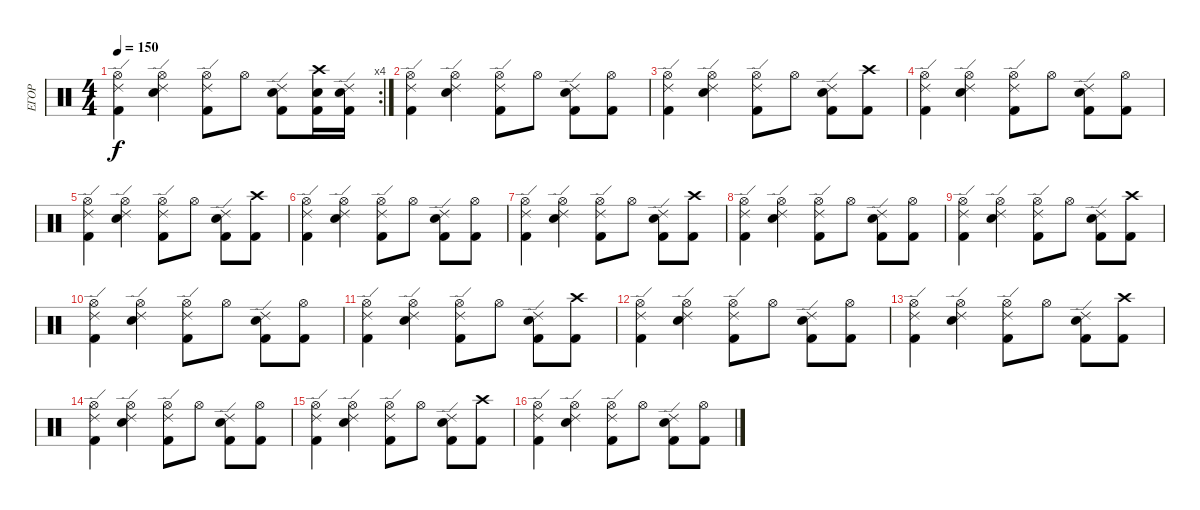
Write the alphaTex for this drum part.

\track ("ЕГОР" "ЕГОР") {instrument percussion}
\staff {score}
\articulation defaults
\rc 4
\ts (4 4)
\tempo 150
\clef neutral
\ks c
("Hi-Hat (open)" "Ride (edge) 2" "Kick (hit) 2").4{dy f} ("Hi-Hat (open)" "Snare (hit) 2" "Ride (edge) 2").4 ("Hi-Hat (open)" "Ride (edge) 2" "Kick (hit) 2").8 "Hi-Hat (open)".8 ("Snare (hit) 2" "Ride (edge) 2" "Kick (hit) 2").8 ("Snare (hit) 2" "Crash high (hit)" "Kick (hit) 2").16 ("Snare (hit) 2" "Ride (edge) 2" "Kick (hit) 2").16 |
("Hi-Hat (open)" "Ride (edge) 2" "Kick (hit) 2").4 ("Hi-Hat (open)" "Snare (hit) 2" "Ride (edge) 2").4 ("Hi-Hat (open)" "Ride (edge) 2" "Kick (hit) 2").8 "Hi-Hat (open)".8 ("Snare (hit) 2" "Ride (edge) 2" "Kick (hit) 2").8 ("Hi-Hat (open)" "Kick (hit) 2").8 |
("Hi-Hat (open)" "Ride (edge) 2" "Kick (hit) 2").4 ("Hi-Hat (open)" "Snare (hit) 2" "Ride (edge) 2").4 ("Hi-Hat (open)" "Ride (edge) 2" "Kick (hit) 2").8 "Hi-Hat (open)".8 ("Snare (hit) 2" "Ride (edge) 2" "Kick (hit) 2").8 ("Crash high (hit)" "Kick (hit) 2").8 |
("Hi-Hat (open)" "Ride (edge) 2" "Kick (hit) 2").4 ("Hi-Hat (open)" "Snare (hit) 2" "Ride (edge) 2").4 ("Hi-Hat (open)" "Ride (edge) 2" "Kick (hit) 2").8 "Hi-Hat (open)".8 ("Snare (hit) 2" "Ride (edge) 2" "Kick (hit) 2").8 ("Hi-Hat (open)" "Kick (hit) 2").8 |
("Hi-Hat (open)" "Ride (edge) 2" "Kick (hit) 2").4 ("Hi-Hat (open)" "Snare (hit) 2" "Ride (edge) 2").4 ("Hi-Hat (open)" "Ride (edge) 2" "Kick (hit) 2").8 "Hi-Hat (open)".8 ("Snare (hit) 2" "Ride (edge) 2" "Kick (hit) 2").8 ("Crash high (hit)" "Kick (hit) 2").8 |
("Hi-Hat (open)" "Ride (edge) 2" "Kick (hit) 2").4 ("Hi-Hat (open)" "Snare (hit) 2" "Ride (edge) 2").4 ("Hi-Hat (open)" "Ride (edge) 2" "Kick (hit) 2").8 "Hi-Hat (open)".8 ("Snare (hit) 2" "Ride (edge) 2" "Kick (hit) 2").8 ("Hi-Hat (open)" "Kick (hit) 2").8 |
("Hi-Hat (open)" "Ride (edge) 2" "Kick (hit) 2").4 ("Hi-Hat (open)" "Snare (hit) 2" "Ride (edge) 2").4 ("Hi-Hat (open)" "Ride (edge) 2" "Kick (hit) 2").8 "Hi-Hat (open)".8 ("Snare (hit) 2" "Ride (edge) 2" "Kick (hit) 2").8 ("Crash high (hit)" "Kick (hit) 2").8 |
("Hi-Hat (open)" "Ride (edge) 2" "Kick (hit) 2").4 ("Hi-Hat (open)" "Snare (hit) 2" "Ride (edge) 2").4 ("Hi-Hat (open)" "Ride (edge) 2" "Kick (hit) 2").8 "Hi-Hat (open)".8 ("Snare (hit) 2" "Ride (edge) 2" "Kick (hit) 2").8 ("Hi-Hat (open)" "Kick (hit) 2").8 |
("Hi-Hat (open)" "Ride (edge) 2" "Kick (hit) 2").4 ("Hi-Hat (open)" "Snare (hit) 2" "Ride (edge) 2").4 ("Hi-Hat (open)" "Ride (edge) 2" "Kick (hit) 2").8 "Hi-Hat (open)".8 ("Snare (hit) 2" "Ride (edge) 2" "Kick (hit) 2").8 ("Crash high (hit)" "Kick (hit) 2").8 |
("Hi-Hat (open)" "Ride (edge) 2" "Kick (hit) 2").4 ("Hi-Hat (open)" "Snare (hit) 2" "Ride (edge) 2").4 ("Hi-Hat (open)" "Ride (edge) 2" "Kick (hit) 2").8 "Hi-Hat (open)".8 ("Snare (hit) 2" "Ride (edge) 2" "Kick (hit) 2").8 ("Hi-Hat (open)" "Kick (hit) 2").8 |
("Hi-Hat (open)" "Ride (edge) 2" "Kick (hit) 2").4 ("Hi-Hat (open)" "Snare (hit) 2" "Ride (edge) 2").4 ("Hi-Hat (open)" "Ride (edge) 2" "Kick (hit) 2").8 "Hi-Hat (open)".8 ("Snare (hit) 2" "Ride (edge) 2" "Kick (hit) 2").8 ("Crash high (hit)" "Kick (hit) 2").8 |
("Hi-Hat (open)" "Ride (edge) 2" "Kick (hit) 2").4 ("Hi-Hat (open)" "Snare (hit) 2" "Ride (edge) 2").4 ("Hi-Hat (open)" "Ride (edge) 2" "Kick (hit) 2").8 "Hi-Hat (open)".8 ("Snare (hit) 2" "Ride (edge) 2" "Kick (hit) 2").8 ("Hi-Hat (open)" "Kick (hit) 2").8 |
("Hi-Hat (open)" "Ride (edge) 2" "Kick (hit) 2").4 ("Hi-Hat (open)" "Snare (hit) 2" "Ride (edge) 2").4 ("Hi-Hat (open)" "Ride (edge) 2" "Kick (hit) 2").8 "Hi-Hat (open)".8 ("Snare (hit) 2" "Ride (edge) 2" "Kick (hit) 2").8 ("Crash high (hit)" "Kick (hit) 2").8 |
("Hi-Hat (open)" "Ride (edge) 2" "Kick (hit) 2").4 ("Hi-Hat (open)" "Snare (hit) 2" "Ride (edge) 2").4 ("Hi-Hat (open)" "Ride (edge) 2" "Kick (hit) 2").8 "Hi-Hat (open)".8 ("Snare (hit) 2" "Ride (edge) 2" "Kick (hit) 2").8 ("Hi-Hat (open)" "Kick (hit) 2").8 |
("Hi-Hat (open)" "Ride (edge) 2" "Kick (hit) 2").4 ("Hi-Hat (open)" "Snare (hit) 2" "Ride (edge) 2").4 ("Hi-Hat (open)" "Ride (edge) 2" "Kick (hit) 2").8 "Hi-Hat (open)".8 ("Snare (hit) 2" "Ride (edge) 2" "Kick (hit) 2").8 ("Crash high (hit)" "Kick (hit) 2").8 |
("Hi-Hat (open)" "Ride (edge) 2" "Kick (hit) 2").4 ("Hi-Hat (open)" "Snare (hit) 2" "Ride (edge) 2").4 ("Hi-Hat (open)" "Ride (edge) 2" "Kick (hit) 2").8 "Hi-Hat (open)".8 ("Snare (hit) 2" "Ride (edge) 2" "Kick (hit) 2").8 ("Hi-Hat (open)" "Kick (hit) 2").8
